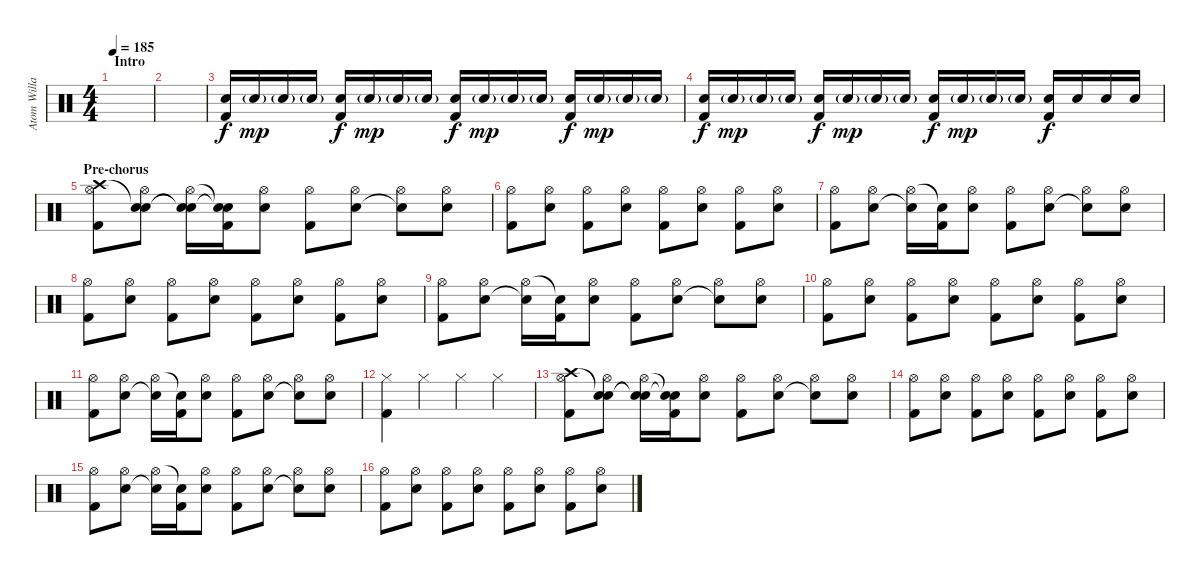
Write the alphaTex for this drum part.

\track ("Atom Willard (Drums)" "Atom Willa") {instrument percussion}
\staff {score}
\articulation defaults
\ts (4 4)
\section ("" "Intro")
\tempo 185
\clef neutral
\ks c
|
|
("Snare (hit) 2" "Kick (hit) 2").16 "Snare (hit) 2"{g}.16{dy mp} "Snare (hit) 2"{g}.16 "Snare (hit) 2"{g}.16 ("Snare (hit) 2" "Kick (hit) 2").16{dy f} "Snare (hit) 2"{g}.16{dy mp} "Snare (hit) 2"{g}.16 "Snare (hit) 2"{g}.16 ("Snare (hit) 2" "Kick (hit) 2").16{dy f} "Snare (hit) 2"{g}.16{dy mp} "Snare (hit) 2"{g}.16 "Snare (hit) 2"{g}.16 ("Snare (hit) 2" "Kick (hit) 2").16{dy f} "Snare (hit) 2"{g}.16{dy mp} "Snare (hit) 2"{g}.16 "Snare (hit) 2"{g}.16 |
("Snare (hit) 2" "Kick (hit) 2").16{dy f} "Snare (hit) 2"{g}.16{dy mp} "Snare (hit) 2"{g}.16 "Snare (hit) 2"{g}.16 ("Snare (hit) 2" "Kick (hit) 2").16{dy f} "Snare (hit) 2"{g}.16{dy mp} "Snare (hit) 2"{g}.16 "Snare (hit) 2"{g}.16 ("Snare (hit) 2" "Kick (hit) 2").16{dy f} "Snare (hit) 2"{g}.16{dy mp} "Snare (hit) 2"{g}.16 "Snare (hit) 2"{g}.16 ("Snare (hit) 2" "Kick (hit) 2").16{dy f} "Snare (hit) 2".16 "Snare (hit) 2".16 "Snare (hit) 2".16 |
\section ("" "Pre-chorus")
("Crash high (hit)" "Hi-Hat (open)" "Kick (hit) 2").8 ("Snare (hit)"{t} "Hi-Hat (open)" "Snare (hit) 2").8 ("Snare (hit)"{t} "Hi-Hat (open)" "Snare (hit)"{t}).16 ("Snare (hit)"{t} "Snare (hit)"{t} "Kick (hit) 2").16 ("Hi-Hat (open)" "Snare (hit) 2").8 ("Hi-Hat (open)" "Kick (hit) 2").8 ("Hi-Hat (open)" "Snare (hit) 2").8 ("Hi-Hat (open)" "Snare (hit)"{t}).8 ("Hi-Hat (open)" "Snare (hit) 2").8 |
("Hi-Hat (open)" "Kick (hit) 2").8 ("Hi-Hat (open)" "Snare (hit) 2").8 ("Hi-Hat (open)" "Kick (hit) 2").8 ("Hi-Hat (open)" "Snare (hit) 2").8 ("Hi-Hat (open)" "Kick (hit) 2").8 ("Hi-Hat (open)" "Snare (hit) 2").8 ("Hi-Hat (open)" "Kick (hit) 2").8 ("Hi-Hat (open)" "Snare (hit) 2").8 |
("Hi-Hat (open)" "Kick (hit) 2").8 ("Hi-Hat (open)" "Snare (hit) 2").8 ("Hi-Hat (open)" "Snare (hit)"{t}).16 ("Snare (hit)"{t} "Kick (hit) 2").16 ("Hi-Hat (open)" "Snare (hit) 2").8 ("Hi-Hat (open)" "Kick (hit) 2").8 ("Hi-Hat (open)" "Snare (hit) 2").8 ("Hi-Hat (open)" "Snare (hit)"{t}).8 ("Hi-Hat (open)" "Snare (hit) 2").8 |
("Hi-Hat (open)" "Kick (hit) 2").8 ("Hi-Hat (open)" "Snare (hit) 2").8 ("Hi-Hat (open)" "Kick (hit) 2").8 ("Hi-Hat (open)" "Snare (hit) 2").8 ("Hi-Hat (open)" "Kick (hit) 2").8 ("Hi-Hat (open)" "Snare (hit) 2").8 ("Hi-Hat (open)" "Kick (hit) 2").8 ("Hi-Hat (open)" "Snare (hit) 2").8 |
("Hi-Hat (open)" "Kick (hit) 2").8 ("Hi-Hat (open)" "Snare (hit) 2").8 ("Hi-Hat (open)" "Snare (hit)"{t}).16 ("Snare (hit)"{t} "Kick (hit) 2").16 ("Hi-Hat (open)" "Snare (hit) 2").8 ("Hi-Hat (open)" "Kick (hit) 2").8 ("Hi-Hat (open)" "Snare (hit) 2").8 ("Hi-Hat (open)" "Snare (hit)"{t}).8 ("Hi-Hat (open)" "Snare (hit) 2").8 |
("Hi-Hat (open)" "Kick (hit) 2").8 ("Hi-Hat (open)" "Snare (hit) 2").8 ("Hi-Hat (open)" "Kick (hit) 2").8 ("Hi-Hat (open)" "Snare (hit) 2").8 ("Hi-Hat (open)" "Kick (hit) 2").8 ("Hi-Hat (open)" "Snare (hit) 2").8 ("Hi-Hat (open)" "Kick (hit) 2").8 ("Hi-Hat (open)" "Snare (hit) 2").8 |
("Hi-Hat (open)" "Kick (hit) 2").8 ("Hi-Hat (open)" "Snare (hit) 2").8 ("Hi-Hat (open)" "Snare (hit)"{t}).16 ("Snare (hit)"{t} "Kick (hit) 2").16 ("Hi-Hat (open)" "Snare (hit) 2").8 ("Hi-Hat (open)" "Kick (hit) 2").8 ("Hi-Hat (open)" "Snare (hit) 2").8 ("Hi-Hat (open)" "Snare (hit)"{t}).8 ("Hi-Hat (open)" "Snare (hit) 2").8 |
("Hi-Hat (closed)" "Kick (hit) 2").4 "Hi-Hat (closed)".4 "Hi-Hat (closed)".4 "Hi-Hat (closed)".4 |
("Crash high (hit)" "Hi-Hat (open)" "Kick (hit) 2").8 ("Snare (hit)"{t} "Hi-Hat (open)" "Snare (hit) 2").8 ("Snare (hit)"{t} "Hi-Hat (open)" "Snare (hit)"{t}).16 ("Snare (hit)"{t} "Snare (hit)"{t} "Kick (hit) 2").16 ("Hi-Hat (open)" "Snare (hit) 2").8 ("Hi-Hat (open)" "Kick (hit) 2").8 ("Hi-Hat (open)" "Snare (hit) 2").8 ("Hi-Hat (open)" "Snare (hit)"{t}).8 ("Hi-Hat (open)" "Snare (hit) 2").8 |
("Hi-Hat (open)" "Kick (hit) 2").8 ("Hi-Hat (open)" "Snare (hit) 2").8 ("Hi-Hat (open)" "Kick (hit) 2").8 ("Hi-Hat (open)" "Snare (hit) 2").8 ("Hi-Hat (open)" "Kick (hit) 2").8 ("Hi-Hat (open)" "Snare (hit) 2").8 ("Hi-Hat (open)" "Kick (hit) 2").8 ("Hi-Hat (open)" "Snare (hit) 2").8 |
("Hi-Hat (open)" "Kick (hit) 2").8 ("Hi-Hat (open)" "Snare (hit) 2").8 ("Hi-Hat (open)" "Snare (hit)"{t}).16 ("Snare (hit)"{t} "Kick (hit) 2").16 ("Hi-Hat (open)" "Snare (hit) 2").8 ("Hi-Hat (open)" "Kick (hit) 2").8 ("Hi-Hat (open)" "Snare (hit) 2").8 ("Hi-Hat (open)" "Snare (hit)"{t}).8 ("Hi-Hat (open)" "Snare (hit) 2").8 |
("Hi-Hat (open)" "Kick (hit) 2").8 ("Hi-Hat (open)" "Snare (hit) 2").8 ("Hi-Hat (open)" "Kick (hit) 2").8 ("Hi-Hat (open)" "Snare (hit) 2").8 ("Hi-Hat (open)" "Kick (hit) 2").8 ("Hi-Hat (open)" "Snare (hit) 2").8 ("Hi-Hat (open)" "Kick (hit) 2").8 ("Hi-Hat (open)" "Snare (hit) 2").8
